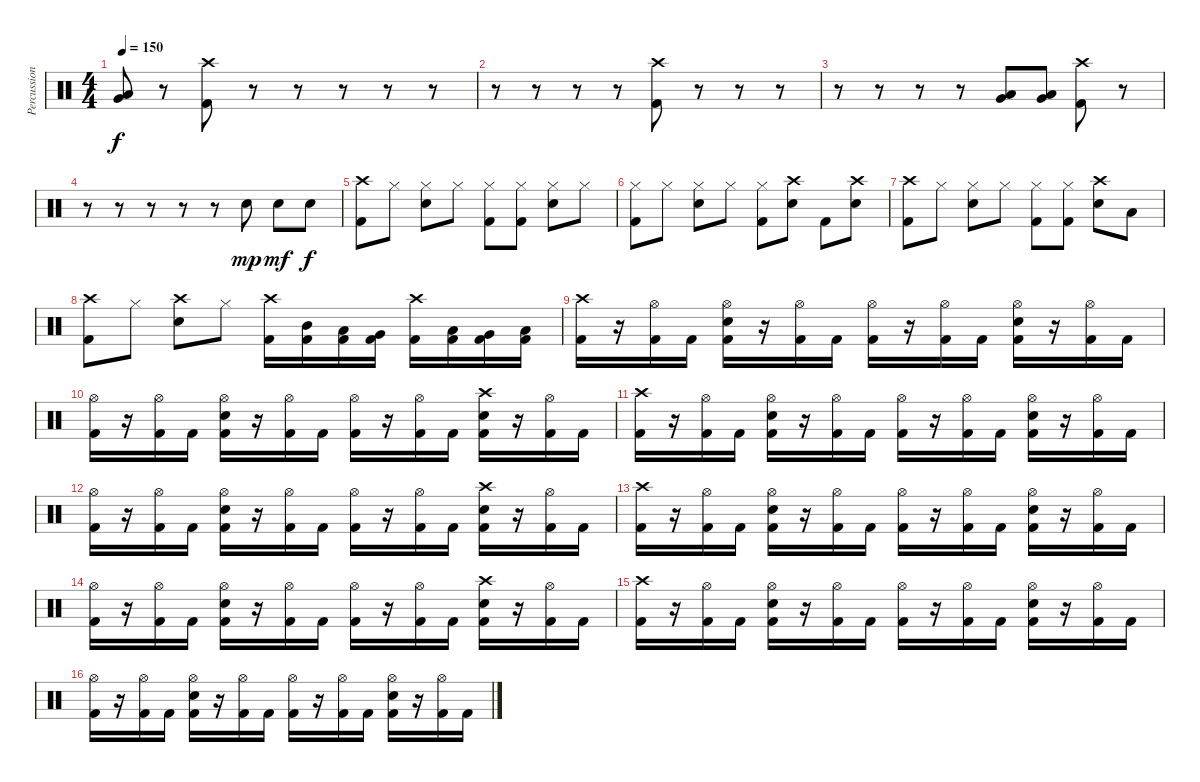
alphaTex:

\track ("Percussion" "Percussion") {instrument percussion}
\staff {score}
\articulation defaults
\ts (4 4)
\tempo 150
\clef neutral
\ks c
("Very Low Tom (hit)" "Low Floor Tom (hit)").8{dy f} r.8 ("Crash high (hit)" "Kick (hit) 2").8 r.8 r.8 r.8 r.8 r.8 |
r.8 r.8 r.8 r.8 ("Crash high (hit)" "Kick (hit) 2").8 r.8 r.8 r.8 |
r.8 r.8 r.8 r.8 ("Very Low Tom (hit)" "Low Floor Tom (hit)").8 ("Very Low Tom (hit)" "Low Floor Tom (hit)").8 ("Crash high (hit)" "Kick (hit) 2").8 r.8 |
r.8 r.8 r.8 r.8 r.8 "Snare (hit) 2".8{dy mp} "Snare (hit) 2".8{dy mf} "Snare (hit) 2".8{dy f} |
("Crash high (hit)" "Kick (hit) 2").8 "Hi-Hat (closed)".8 ("Hi-Hat (closed)" "Snare (hit) 2").8 "Hi-Hat (closed)".8 ("Hi-Hat (closed)" "Kick (hit) 2").8 ("Hi-Hat (closed)" "Kick (hit) 2").8 ("Hi-Hat (closed)" "Snare (hit) 2").8 "Hi-Hat (closed)".8 |
("Hi-Hat (closed)" "Kick (hit) 2").8 "Hi-Hat (closed)".8 ("Hi-Hat (closed)" "Snare (hit) 2").8 "Hi-Hat (closed)".8 ("Hi-Hat (closed)" "Kick (hit) 2").8 ("Crash high (hit)" "Snare (hit) 2").8 "Kick (hit) 2".8 ("Crash high (hit)" "Snare (hit) 2").8 |
("Crash high (hit)" "Kick (hit) 2").8 "Hi-Hat (closed)".8 ("Hi-Hat (closed)" "Snare (hit) 2").8 "Hi-Hat (closed)".8 ("Hi-Hat (closed)" "Kick (hit) 2").8 ("Hi-Hat (closed)" "Kick (hit) 2").8 ("Crash high (hit)" "Snare (hit) 2").8 "Low Tom (hit)".8 |
("Crash high (hit)" "Kick (hit) 2").8 "Hi-Hat (closed)".8 ("Crash high (hit)" "Snare (hit) 2").8 "Hi-Hat (closed)".8 ("Crash high (hit)" "Kick (hit) 2").16 ("Mid Tom (hit)" "Kick (hit) 2").16 ("Low Tom (hit)" "Kick (hit) 2").16 ("Very Low Tom (hit)" "Kick (hit) 2").16 ("Crash high (hit)" "Kick (hit) 2").16 ("Low Tom (hit)" "Kick (hit) 2").16 ("Very Low Tom (hit)" "Kick (hit) 2").16 ("Low Floor Tom (hit)" "Kick (hit) 2").16 |
("Crash high (hit)" "Kick (hit) 2").16 r.16 ("Hi-Hat (open)" "Kick (hit) 2").16 "Kick (hit) 2".16 ("Hi-Hat (open)" "Snare (hit) 2" "Kick (hit) 2").16 r.16 ("Hi-Hat (open)" "Kick (hit) 2").16 "Kick (hit) 2".16 ("Hi-Hat (open)" "Kick (hit) 2").16 r.16 ("Hi-Hat (open)" "Kick (hit) 2").16 "Kick (hit) 2".16 ("Hi-Hat (open)" "Snare (hit) 2" "Kick (hit) 2").16 r.16 ("Hi-Hat (open)" "Kick (hit) 2").16 "Kick (hit) 2".16 |
("Hi-Hat (open)" "Kick (hit) 2").16 r.16 ("Hi-Hat (open)" "Kick (hit) 2").16 "Kick (hit) 2".16 ("Hi-Hat (open)" "Snare (hit) 2" "Kick (hit) 2").16 r.16 ("Hi-Hat (open)" "Kick (hit) 2").16 "Kick (hit) 2".16 ("Hi-Hat (open)" "Kick (hit) 2").16 r.16 ("Hi-Hat (open)" "Kick (hit) 2").16 "Kick (hit) 2".16 ("Crash high (hit)" "Snare (hit) 2" "Kick (hit) 2").16 r.16 ("Hi-Hat (open)" "Kick (hit) 2").16 "Kick (hit) 2".16 |
("Crash high (hit)" "Kick (hit) 2").16 r.16 ("Hi-Hat (open)" "Kick (hit) 2").16 "Kick (hit) 2".16 ("Hi-Hat (open)" "Snare (hit) 2" "Kick (hit) 2").16 r.16 ("Hi-Hat (open)" "Kick (hit) 2").16 "Kick (hit) 2".16 ("Hi-Hat (open)" "Kick (hit) 2").16 r.16 ("Hi-Hat (open)" "Kick (hit) 2").16 "Kick (hit) 2".16 ("Hi-Hat (open)" "Snare (hit) 2" "Kick (hit) 2").16 r.16 ("Hi-Hat (open)" "Kick (hit) 2").16 "Kick (hit) 2".16 |
("Hi-Hat (open)" "Kick (hit) 2").16 r.16 ("Hi-Hat (open)" "Kick (hit) 2").16 "Kick (hit) 2".16 ("Hi-Hat (open)" "Snare (hit) 2" "Kick (hit) 2").16 r.16 ("Hi-Hat (open)" "Kick (hit) 2").16 "Kick (hit) 2".16 ("Hi-Hat (open)" "Kick (hit) 2").16 r.16 ("Hi-Hat (open)" "Kick (hit) 2").16 "Kick (hit) 2".16 ("Crash high (hit)" "Snare (hit) 2" "Kick (hit) 2").16 r.16 ("Hi-Hat (open)" "Kick (hit) 2").16 "Kick (hit) 2".16 |
("Crash high (hit)" "Kick (hit) 2").16 r.16 ("Hi-Hat (open)" "Kick (hit) 2").16 "Kick (hit) 2".16 ("Hi-Hat (open)" "Snare (hit) 2" "Kick (hit) 2").16 r.16 ("Hi-Hat (open)" "Kick (hit) 2").16 "Kick (hit) 2".16 ("Hi-Hat (open)" "Kick (hit) 2").16 r.16 ("Hi-Hat (open)" "Kick (hit) 2").16 "Kick (hit) 2".16 ("Hi-Hat (open)" "Snare (hit) 2" "Kick (hit) 2").16 r.16 ("Hi-Hat (open)" "Kick (hit) 2").16 "Kick (hit) 2".16 |
("Hi-Hat (open)" "Kick (hit) 2").16 r.16 ("Hi-Hat (open)" "Kick (hit) 2").16 "Kick (hit) 2".16 ("Hi-Hat (open)" "Snare (hit) 2" "Kick (hit) 2").16 r.16 ("Hi-Hat (open)" "Kick (hit) 2").16 "Kick (hit) 2".16 ("Hi-Hat (open)" "Kick (hit) 2").16 r.16 ("Hi-Hat (open)" "Kick (hit) 2").16 "Kick (hit) 2".16 ("Crash high (hit)" "Snare (hit) 2" "Kick (hit) 2").16 r.16 ("Hi-Hat (open)" "Kick (hit) 2").16 "Kick (hit) 2".16 |
("Crash high (hit)" "Kick (hit) 2").16 r.16 ("Hi-Hat (open)" "Kick (hit) 2").16 "Kick (hit) 2".16 ("Hi-Hat (open)" "Snare (hit) 2" "Kick (hit) 2").16 r.16 ("Hi-Hat (open)" "Kick (hit) 2").16 "Kick (hit) 2".16 ("Hi-Hat (open)" "Kick (hit) 2").16 r.16 ("Hi-Hat (open)" "Kick (hit) 2").16 "Kick (hit) 2".16 ("Hi-Hat (open)" "Snare (hit) 2" "Kick (hit) 2").16 r.16 ("Hi-Hat (open)" "Kick (hit) 2").16 "Kick (hit) 2".16 |
("Hi-Hat (open)" "Kick (hit) 2").16 r.16 ("Hi-Hat (open)" "Kick (hit) 2").16 "Kick (hit) 2".16 ("Hi-Hat (open)" "Snare (hit) 2" "Kick (hit) 2").16 r.16 ("Hi-Hat (open)" "Kick (hit) 2").16 "Kick (hit) 2".16 ("Hi-Hat (open)" "Kick (hit) 2").16 r.16 ("Hi-Hat (open)" "Kick (hit) 2").16 "Kick (hit) 2".16 ("Hi-Hat (open)" "Snare (hit) 2" "Kick (hit) 2").16 r.16 ("Hi-Hat (open)" "Kick (hit) 2").16 "Kick (hit) 2".16
